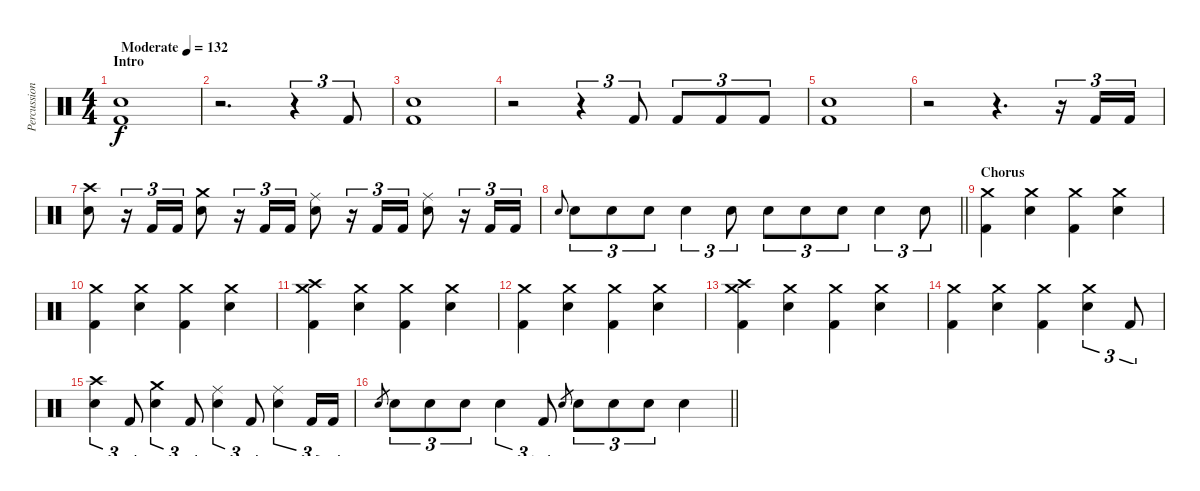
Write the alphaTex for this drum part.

\track ("Percussion" "Percussion") {instrument percussion}
\staff {score}
\articulation defaults
\ts (4 4)
\section ("" "Intro")
\tempo (132 "Moderate")
\clef neutral
\ks c
("Snare (hit) 2" "Kick (hit) 2").1{dy f} |
r.2{d} r.4{tu (3 2)} "Kick (hit) 2".8{tu (3 2)} |
("Snare (hit) 2" "Kick (hit) 2").1 |
r.2 r.4{tu (3 2)} "Kick (hit) 2".8{tu (3 2)} "Kick (hit) 2".8{tu (3 2)} "Kick (hit) 2".8{tu (3 2)} "Kick (hit) 2".8{tu (3 2)} |
("Snare (hit) 2" "Kick (hit) 2").1 |
r.2 r.4{d} r.16{tu (3 2)} "Kick (hit) 2".16{tu (3 2)} "Kick (hit) 2".16{tu (3 2)} |
("Crash high (hit)" "Snare (hit) 2").8 r.16{tu (3 2)} "Kick (hit) 2".16{tu (3 2)} "Kick (hit) 2".16{tu (3 2)} ("Crash medium (hit)" "Snare (hit) 2").8 r.16{tu (3 2)} "Kick (hit) 2".16{tu (3 2)} "Kick (hit) 2".16{tu (3 2)} ("Ride (middle)" "Snare (hit) 2").8 r.16{tu (3 2)} "Kick (hit) 2".16{tu (3 2)} "Kick (hit) 2".16{tu (3 2)} ("Ride (middle)" "Snare (hit) 2").8 r.16{tu (3 2)} "Kick (hit) 2".16{tu (3 2)} "Kick (hit) 2".16{tu (3 2)} |
\barLineRight lightlight "Snare (hit) 2".8{gr onbeat} "Snare (hit) 2".8{tu (3 2)} "Snare (hit) 2".8{tu (3 2)} "Snare (hit) 2".8{tu (3 2)} "Snare (hit) 2".4{tu (3 2)} "Snare (hit) 2".8{tu (3 2)} "Snare (hit) 2".8{tu (3 2)} "Snare (hit) 2".8{tu (3 2)} "Snare (hit) 2".8{tu (3 2)} "Snare (hit) 2".4{tu (3 2)} "Snare (hit) 2".8{tu (3 2)}
|
\section ("" "Chorus")
("Crash medium (hit)" "Kick (hit) 2").4 ("Crash medium (hit)" "Snare (hit) 2").4 ("Crash medium (hit)" "Kick (hit) 2").4 ("Crash medium (hit)" "Snare (hit) 2").4 |
("Crash medium (hit)" "Kick (hit) 2").4 ("Crash medium (hit)" "Snare (hit) 2").4 ("Crash medium (hit)" "Kick (hit) 2").4 ("Crash medium (hit)" "Snare (hit) 2").4 |
("Crash medium (hit)" "Crash high (hit)" "Kick (hit) 2").4 ("Crash medium (hit)" "Snare (hit) 2").4 ("Crash medium (hit)" "Kick (hit) 2").4 ("Crash medium (hit)" "Snare (hit) 2").4 |
("Crash medium (hit)" "Kick (hit) 2").4 ("Crash medium (hit)" "Snare (hit) 2").4 ("Crash medium (hit)" "Kick (hit) 2").4 ("Crash medium (hit)" "Snare (hit) 2").4 |
("Crash medium (hit)" "Crash high (hit)" "Kick (hit) 2").4 ("Crash medium (hit)" "Snare (hit) 2").4 ("Crash medium (hit)" "Kick (hit) 2").4 ("Crash medium (hit)" "Snare (hit) 2").4 |
("Crash medium (hit)" "Kick (hit) 2").4 ("Crash medium (hit)" "Snare (hit) 2").4 ("Crash medium (hit)" "Kick (hit) 2").4 ("Crash medium (hit)" "Snare (hit) 2").4{tu (3 2)} "Kick (hit) 2".8{tu (3 2)} |
("Crash high (hit)" "Snare (hit) 2").4{tu (3 2)} "Kick (hit) 2".8{tu (3 2)} ("Crash medium (hit)" "Snare (hit) 2").4{tu (3 2)} "Kick (hit) 2".8{tu (3 2)} ("Ride (middle)" "Snare (hit) 2").4{tu (3 2)} "Kick (hit) 2".8{tu (3 2)} ("Ride (middle)" "Snare (hit) 2").4{tu (3 2)} "Kick (hit) 2".16{tu (3 2)} "Kick (hit) 2".16{tu (3 2)} |
\barLineRight lightlight "Snare (hit) 2".8{gr} "Snare (hit) 2".8{tu (3 2)} "Snare (hit) 2".8{tu (3 2)} "Snare (hit) 2".8{tu (3 2)} "Snare (hit) 2".4{tu (3 2)} "Kick (hit) 2".8{tu (3 2)} "Snare (hit) 2".8{gr} "Snare (hit) 2".8{tu (3 2)} "Snare (hit) 2".8{tu (3 2)} "Snare (hit) 2".8{tu (3 2)} "Snare (hit) 2".4
